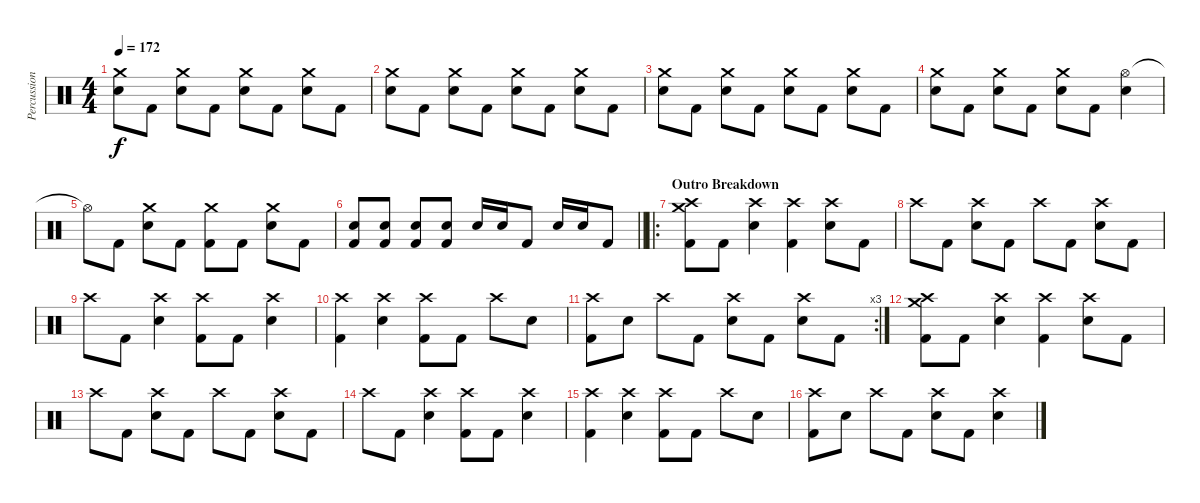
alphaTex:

\track ("Percussion" "Percussion") {instrument percussion}
\staff {score}
\articulation defaults
\ts (4 4)
\tempo 172
\clef neutral
\ks aminor
("Crash medium (hit)" "Electric Snare (hit)").8{dy f} "Kick (hit) 2".8 ("Crash medium (hit)" "Electric Snare (hit)").8 "Kick (hit) 2".8 ("Crash medium (hit)" "Electric Snare (hit)").8 "Kick (hit) 2".8 ("Crash medium (hit)" "Electric Snare (hit)").8 "Kick (hit) 2".8 |
("Crash medium (hit)" "Electric Snare (hit)").8 "Kick (hit) 2".8 ("Crash medium (hit)" "Electric Snare (hit)").8 "Kick (hit) 2".8 ("Crash medium (hit)" "Electric Snare (hit)").8 "Kick (hit) 2".8 ("Crash medium (hit)" "Electric Snare (hit)").8 "Kick (hit) 2".8 |
("Crash medium (hit)" "Electric Snare (hit)").8 "Kick (hit) 2".8 ("Crash medium (hit)" "Electric Snare (hit)").8 "Kick (hit) 2".8 ("Crash medium (hit)" "Electric Snare (hit)").8 "Kick (hit) 2".8 ("Crash medium (hit)" "Electric Snare (hit)").8 "Kick (hit) 2".8 |
("Crash medium (hit)" "Electric Snare (hit)").8 "Kick (hit) 2".8 ("Crash medium (hit)" "Electric Snare (hit)").8 "Kick (hit) 2".8 ("Crash medium (hit)" "Electric Snare (hit)").8 "Kick (hit) 2".8 ("Hi-Hat (open)" "Electric Snare (hit)").4 |
"Hi-Hat (open)"{t}.8 "Kick (hit) 2".8 ("Crash medium (hit)" "Electric Snare (hit)").8 "Kick (hit) 2".8 ("Crash medium (hit)" "Kick (hit) 2").8 "Kick (hit) 2".8 ("Crash medium (hit)" "Electric Snare (hit)").8 "Kick (hit) 2".8 |
\barLineRight lightlight
("Electric Snare (hit)" "Kick (hit) 2").8 ("Electric Snare (hit)" "Kick (hit) 2").8 ("Electric Snare (hit)" "Kick (hit) 2").8 ("Electric Snare (hit)" "Kick (hit) 2").8 "Electric Snare (hit)".16 "Electric Snare (hit)".16 "Kick (hit) 2".8 "Electric Snare (hit)".16 "Electric Snare (hit)".16 "Kick (hit) 2".8 |
\ro
\section ("" "Outro Breakdown")
("Crash medium (hit)" "Crash high (hit)" "Kick (hit) 2").8 "Kick (hit) 2".8 ("Crash high (hit)" "Electric Snare (hit)").4 ("Crash high (hit)" "Kick (hit) 2").4 ("Crash high (hit)" "Electric Snare (hit)").8 "Kick (hit) 2".8 |
"Crash high (hit)".8 "Kick (hit) 2".8 ("Crash high (hit)" "Electric Snare (hit)").8 "Kick (hit) 2".8 "Crash high (hit)".8 "Kick (hit) 2".8 ("Crash high (hit)" "Electric Snare (hit)").8 "Kick (hit) 2".8 |
"Crash high (hit)".8 "Kick (hit) 2".8 ("Crash high (hit)" "Electric Snare (hit)").4 ("Crash high (hit)" "Kick (hit) 2").8 "Kick (hit) 2".8 ("Crash high (hit)" "Electric Snare (hit)").4 |
("Crash high (hit)" "Kick (hit) 2").4 ("Crash high (hit)" "Electric Snare (hit)").4 ("Crash high (hit)" "Kick (hit) 2").8 "Kick (hit) 2".8 "Crash high (hit)".8 "Electric Snare (hit)".8 |
\rc 3
("Crash high (hit)" "Kick (hit) 2").8 "Electric Snare (hit)".8 "Crash high (hit)".8 "Kick (hit) 2".8 ("Crash high (hit)" "Electric Snare (hit)").8 "Kick (hit) 2".8 ("Crash high (hit)" "Electric Snare (hit)").8 "Kick (hit) 2".8 |
("Crash medium (hit)" "Crash high (hit)" "Kick (hit) 2").8 "Kick (hit) 2".8 ("Crash high (hit)" "Electric Snare (hit)").4 ("Crash high (hit)" "Kick (hit) 2").4 ("Crash high (hit)" "Electric Snare (hit)").8 "Kick (hit) 2".8 |
"Crash high (hit)".8 "Kick (hit) 2".8 ("Crash high (hit)" "Electric Snare (hit)").8 "Kick (hit) 2".8 "Crash high (hit)".8 "Kick (hit) 2".8 ("Crash high (hit)" "Electric Snare (hit)").8 "Kick (hit) 2".8 |
"Crash high (hit)".8 "Kick (hit) 2".8 ("Crash high (hit)" "Electric Snare (hit)").4 ("Crash high (hit)" "Kick (hit) 2").8 "Kick (hit) 2".8 ("Crash high (hit)" "Electric Snare (hit)").4 |
("Crash high (hit)" "Kick (hit) 2").4 ("Crash high (hit)" "Electric Snare (hit)").4 ("Crash high (hit)" "Kick (hit) 2").8 "Kick (hit) 2".8 "Crash high (hit)".8 "Electric Snare (hit)".8 |
("Crash high (hit)" "Kick (hit) 2").8 "Electric Snare (hit)".8 "Crash high (hit)".8 "Kick (hit) 2".8 ("Crash high (hit)" "Electric Snare (hit)").8 "Kick (hit) 2".8 ("Crash high (hit)" "Electric Snare (hit)").4
